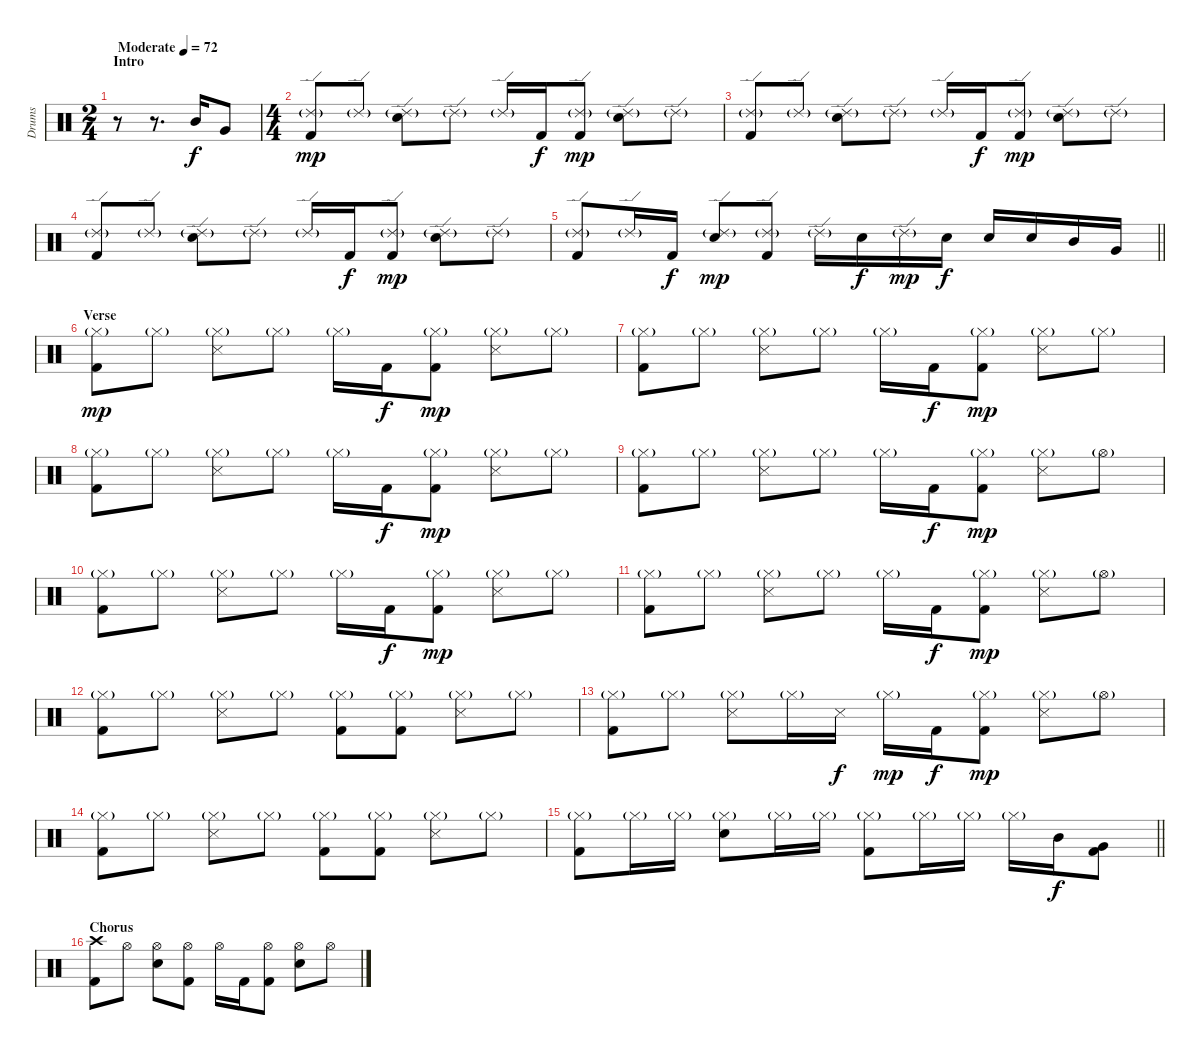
\track ("Drums" "Drums") {instrument percussion}
\staff {score}
\articulation defaults
\ts (2 4)
\section ("" "Intro")
\tempo (72 "Moderate")
\clef neutral
\ks c
r.8{dy f} r.8{d} "Mid Tom (hit)".16 "Very Low Tom (hit)".8 |
\ts (4 4)
("Ride (edge) 2"{g} "Kick (hit) 2").8{dy mp} "Ride (edge) 2"{g}.8 ("Ride (edge) 2"{g} "Snare (hit) 2").8 "Ride (edge) 2"{g}.8 "Ride (edge) 2"{g}.16 "Kick (hit) 2".16{dy f} ("Ride (edge) 2"{g} "Kick (hit) 2").8{dy mp} ("Ride (edge) 2"{g} "Snare (hit) 2").8 "Ride (edge) 2"{g}.8 |
("Ride (edge) 2"{g} "Kick (hit) 2").8 "Ride (edge) 2"{g}.8 ("Ride (edge) 2"{g} "Snare (hit) 2").8 "Ride (edge) 2"{g}.8 "Ride (edge) 2"{g}.16 "Kick (hit) 2".16{dy f} ("Ride (edge) 2"{g} "Kick (hit) 2").8{dy mp} ("Ride (edge) 2"{g} "Snare (hit) 2").8 "Ride (edge) 2"{g}.8 |
("Ride (edge) 2"{g} "Kick (hit) 2").8 "Ride (edge) 2"{g}.8 ("Ride (edge) 2"{g} "Snare (hit) 2").8 "Ride (edge) 2"{g}.8 "Ride (edge) 2"{g}.16 "Kick (hit) 2".16{dy f} ("Ride (edge) 2"{g} "Kick (hit) 2").8{dy mp} ("Ride (edge) 2"{g} "Snare (hit) 2").8 "Ride (edge) 2"{g}.8 |
\barLineRight lightlight
("Ride (edge) 2"{g} "Kick (hit) 2").8 "Ride (edge) 2"{g}.16 "Kick (hit) 2".16{dy f} ("Ride (edge) 2"{g} "Snare (hit) 2").8{dy mp} ("Ride (edge) 2"{g} "Kick (hit) 2").8 "Ride (edge) 2"{g}.16 "Snare (hit) 2".16{dy f} "Ride (edge) 2"{g}.16{dy mp} "Snare (hit) 2".16{dy f} "Snare (hit) 2".16 "Snare (hit) 2".16 "Mid Tom (hit)".16 "Very Low Tom (hit)".16 |
\section ("" "Verse")
("Hi-Hat (closed)"{g} "Kick (hit) 2").8{dy mp} "Hi-Hat (closed)"{g}.8 ("Hi-Hat (closed)"{g} "Snare (side stick) 3").8 "Hi-Hat (closed)"{g}.8 "Hi-Hat (closed)"{g}.16 "Kick (hit) 2".16{dy f} ("Hi-Hat (closed)"{g} "Kick (hit) 2").8{dy mp} ("Hi-Hat (closed)"{g} "Snare (side stick) 3").8 "Hi-Hat (closed)"{g}.8 |
("Hi-Hat (closed)"{g} "Kick (hit) 2").8 "Hi-Hat (closed)"{g}.8 ("Hi-Hat (closed)"{g} "Snare (side stick) 3").8 "Hi-Hat (closed)"{g}.8 "Hi-Hat (closed)"{g}.16 "Kick (hit) 2".16{dy f} ("Hi-Hat (closed)"{g} "Kick (hit) 2").8{dy mp} ("Hi-Hat (closed)"{g} "Snare (side stick) 3").8 "Hi-Hat (closed)"{g}.8 |
("Hi-Hat (closed)"{g} "Kick (hit) 2").8 "Hi-Hat (closed)"{g}.8 ("Hi-Hat (closed)"{g} "Snare (side stick) 3").8 "Hi-Hat (closed)"{g}.8 "Hi-Hat (closed)"{g}.16 "Kick (hit) 2".16{dy f} ("Hi-Hat (closed)"{g} "Kick (hit) 2").8{dy mp} ("Hi-Hat (closed)"{g} "Snare (side stick) 3").8 "Hi-Hat (closed)"{g}.8 |
("Hi-Hat (closed)"{g} "Kick (hit) 2").8 "Hi-Hat (closed)"{g}.8 ("Hi-Hat (closed)"{g} "Snare (side stick) 3").8 "Hi-Hat (closed)"{g}.8 "Hi-Hat (closed)"{g}.16 "Kick (hit) 2".16{dy f} ("Hi-Hat (closed)"{g} "Kick (hit) 2").8{dy mp} ("Hi-Hat (closed)"{g} "Snare (side stick) 3").8 "Hi-Hat (open)"{g}.8 |
("Hi-Hat (closed)"{g} "Kick (hit) 2").8 "Hi-Hat (closed)"{g}.8 ("Hi-Hat (closed)"{g} "Snare (side stick) 3").8 "Hi-Hat (closed)"{g}.8 "Hi-Hat (closed)"{g}.16 "Kick (hit) 2".16{dy f} ("Hi-Hat (closed)"{g} "Kick (hit) 2").8{dy mp} ("Hi-Hat (closed)"{g} "Snare (side stick) 3").8 "Hi-Hat (closed)"{g}.8 |
("Hi-Hat (closed)"{g} "Kick (hit) 2").8 "Hi-Hat (closed)"{g}.8 ("Hi-Hat (closed)"{g} "Snare (side stick) 3").8 "Hi-Hat (closed)"{g}.8 "Hi-Hat (closed)"{g}.16 "Kick (hit) 2".16{dy f} ("Hi-Hat (closed)"{g} "Kick (hit) 2").8{dy mp} ("Hi-Hat (closed)"{g} "Snare (side stick) 3").8 "Hi-Hat (open)"{g}.8 |
("Hi-Hat (closed)"{g} "Kick (hit) 2").8 "Hi-Hat (closed)"{g}.8 ("Hi-Hat (closed)"{g} "Snare (side stick) 3").8 "Hi-Hat (closed)"{g}.8 ("Hi-Hat (closed)"{g} "Kick (hit) 2").8 ("Hi-Hat (closed)"{g} "Kick (hit) 2").8 ("Hi-Hat (closed)"{g} "Snare (side stick) 3").8 "Hi-Hat (closed)"{g}.8 |
("Hi-Hat (closed)"{g} "Kick (hit) 2").8 "Hi-Hat (closed)"{g}.8 ("Hi-Hat (closed)"{g} "Snare (side stick) 3").8 "Hi-Hat (closed)"{g}.16 "Snare (side stick) 3".16{dy f} "Hi-Hat (closed)"{g}.16{dy mp} "Kick (hit) 2".16{dy f} ("Hi-Hat (closed)"{g} "Kick (hit) 2").8{dy mp} ("Hi-Hat (closed)"{g} "Snare (side stick) 3").8 "Hi-Hat (open)"{g}.8 |
("Hi-Hat (closed)"{g} "Kick (hit) 2").8 "Hi-Hat (closed)"{g}.8 ("Hi-Hat (closed)"{g} "Snare (side stick) 3").8 "Hi-Hat (closed)"{g}.8 ("Hi-Hat (closed)"{g} "Kick (hit) 2").8 ("Hi-Hat (closed)"{g} "Kick (hit) 2").8 ("Hi-Hat (closed)"{g} "Snare (side stick) 3").8 "Hi-Hat (closed)"{g}.8 |
\barLineRight lightlight
("Hi-Hat (closed)"{g} "Kick (hit) 2").8 "Hi-Hat (closed)"{g}.16 "Hi-Hat (closed)"{g}.16 ("Hi-Hat (closed)"{g} "Snare (hit) 2").8 "Hi-Hat (closed)"{g}.16 "Hi-Hat (closed)"{g}.16 ("Hi-Hat (closed)"{g} "Kick (hit) 2").8 "Hi-Hat (closed)"{g}.16 "Hi-Hat (closed)"{g}.16 "Hi-Hat (closed)"{g}.16 "Mid Tom (hit)".16{dy f} ("Kick (hit) 2" "Very Low Tom (hit)").8 |
\section ("" "Chorus")
("Crash high (hit)" "Kick (hit) 2").8 "Hi-Hat (open)".8 ("Hi-Hat (open)" "Snare (hit) 2").8 ("Hi-Hat (open)" "Kick (hit) 2").8 "Hi-Hat (open)".16 "Kick (hit) 2".16 ("Hi-Hat (open)" "Kick (hit) 2").8 ("Hi-Hat (open)" "Snare (hit) 2").8 "Hi-Hat (open)".8
